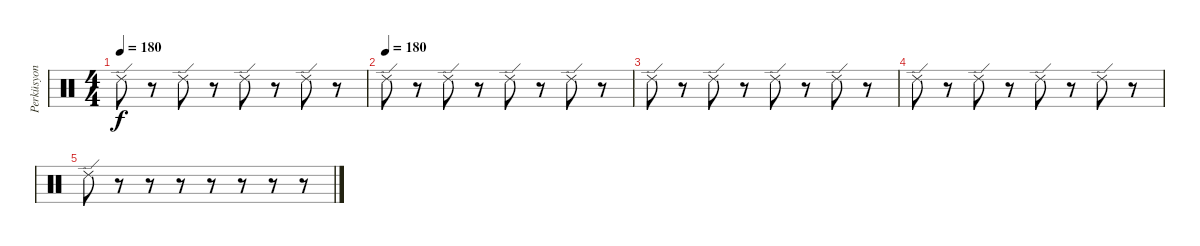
\track ("Perküsyon" "Perküsyon") {instrument percussion}
\staff {score}
\articulation defaults
\ts (4 4)
\tempo 180
\clef neutral
\ks c "Ride (edge) 2".8{dy f}
r.8 "Ride (edge) 2".8 r.8 "Ride (edge) 2".8 r.8 "Ride (edge) 2".8 r.8 |
\tempo (180)
"Ride (edge) 2".8 r.8 "Ride (edge) 2".8 r.8 "Ride (edge) 2".8 r.8 "Ride (edge) 2".8 r.8 |
"Ride (edge) 2".8 r.8 "Ride (edge) 2".8 r.8 "Ride (edge) 2".8 r.8 "Ride (edge) 2".8 r.8 |
"Ride (edge) 2".8 r.8 "Ride (edge) 2".8 r.8 "Ride (edge) 2".8 r.8 "Ride (edge) 2".8 r.8 |
"Ride (edge) 2".8 r.8 r.8 r.8 r.8 r.8 r.8 r.8
